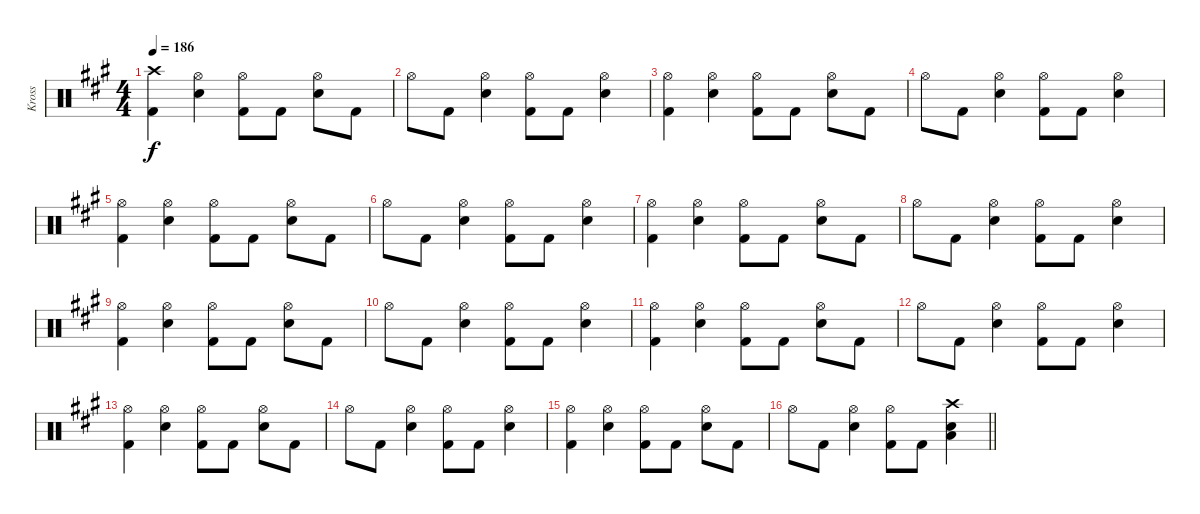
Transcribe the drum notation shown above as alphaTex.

\track ("Kross" "Kross") {instrument percussion}
\staff {score}
\articulation defaults
\ts (4 4)
\tempo 186
\clef neutral
\ks a
("Crash high (hit)" "Kick (hit) 2").4{dy f} ("Hi-Hat (open)" "Electric Snare (hit)").4 ("Hi-Hat (open)" "Kick (hit) 2").8 "Kick (hit) 2".8 ("Hi-Hat (open)" "Electric Snare (hit)").8 "Kick (hit) 2".8 |
"Hi-Hat (open)".8 "Kick (hit) 2".8 ("Hi-Hat (open)" "Electric Snare (hit)").4 ("Hi-Hat (open)" "Kick (hit) 2").8 "Kick (hit) 2".8 ("Hi-Hat (open)" "Electric Snare (hit)").4 |
("Hi-Hat (open)" "Kick (hit) 2").4 ("Hi-Hat (open)" "Electric Snare (hit)").4 ("Hi-Hat (open)" "Kick (hit) 2").8 "Kick (hit) 2".8 ("Hi-Hat (open)" "Electric Snare (hit)").8 "Kick (hit) 2".8 |
"Hi-Hat (open)".8 "Kick (hit) 2".8 ("Hi-Hat (open)" "Electric Snare (hit)").4 ("Hi-Hat (open)" "Kick (hit) 2").8 "Kick (hit) 2".8 ("Hi-Hat (open)" "Electric Snare (hit)").4 |
("Hi-Hat (open)" "Kick (hit) 2").4 ("Hi-Hat (open)" "Electric Snare (hit)").4 ("Hi-Hat (open)" "Kick (hit) 2").8 "Kick (hit) 2".8 ("Hi-Hat (open)" "Electric Snare (hit)").8 "Kick (hit) 2".8 |
"Hi-Hat (open)".8 "Kick (hit) 2".8 ("Hi-Hat (open)" "Electric Snare (hit)").4 ("Hi-Hat (open)" "Kick (hit) 2").8 "Kick (hit) 2".8 ("Hi-Hat (open)" "Electric Snare (hit)").4 |
("Hi-Hat (open)" "Kick (hit) 2").4 ("Hi-Hat (open)" "Electric Snare (hit)").4 ("Hi-Hat (open)" "Kick (hit) 2").8 "Kick (hit) 2".8 ("Hi-Hat (open)" "Electric Snare (hit)").8 "Kick (hit) 2".8 |
"Hi-Hat (open)".8 "Kick (hit) 2".8 ("Hi-Hat (open)" "Electric Snare (hit)").4 ("Hi-Hat (open)" "Kick (hit) 2").8 "Kick (hit) 2".8 ("Hi-Hat (open)" "Electric Snare (hit)").4 |
("Hi-Hat (open)" "Kick (hit) 2").4 ("Hi-Hat (open)" "Electric Snare (hit)").4 ("Hi-Hat (open)" "Kick (hit) 2").8 "Kick (hit) 2".8 ("Hi-Hat (open)" "Electric Snare (hit)").8 "Kick (hit) 2".8 |
"Hi-Hat (open)".8 "Kick (hit) 2".8 ("Hi-Hat (open)" "Electric Snare (hit)").4 ("Hi-Hat (open)" "Kick (hit) 2").8 "Kick (hit) 2".8 ("Hi-Hat (open)" "Electric Snare (hit)").4 |
("Hi-Hat (open)" "Kick (hit) 2").4 ("Hi-Hat (open)" "Electric Snare (hit)").4 ("Hi-Hat (open)" "Kick (hit) 2").8 "Kick (hit) 2".8 ("Hi-Hat (open)" "Electric Snare (hit)").8 "Kick (hit) 2".8 |
"Hi-Hat (open)".8 "Kick (hit) 2".8 ("Hi-Hat (open)" "Electric Snare (hit)").4 ("Hi-Hat (open)" "Kick (hit) 2").8 "Kick (hit) 2".8 ("Hi-Hat (open)" "Electric Snare (hit)").4 |
("Hi-Hat (open)" "Kick (hit) 2").4 ("Hi-Hat (open)" "Electric Snare (hit)").4 ("Hi-Hat (open)" "Kick (hit) 2").8 "Kick (hit) 2".8 ("Hi-Hat (open)" "Electric Snare (hit)").8 "Kick (hit) 2".8 |
"Hi-Hat (open)".8 "Kick (hit) 2".8 ("Hi-Hat (open)" "Electric Snare (hit)").4 ("Hi-Hat (open)" "Kick (hit) 2").8 "Kick (hit) 2".8 ("Hi-Hat (open)" "Electric Snare (hit)").4 |
("Hi-Hat (open)" "Kick (hit) 2").4 ("Hi-Hat (open)" "Electric Snare (hit)").4 ("Hi-Hat (open)" "Kick (hit) 2").8 "Kick (hit) 2".8 ("Hi-Hat (open)" "Electric Snare (hit)").8 "Kick (hit) 2".8 |
\barLineRight lightlight "Hi-Hat (open)".8 "Kick (hit) 2".8
("Hi-Hat (open)" "Electric Snare (hit)").4 ("Hi-Hat (open)" "Kick (hit) 2").8 "Kick (hit) 2".8 ("Crash high (hit)" "Electric Snare (hit)" "Low Floor Tom (hit)").4
